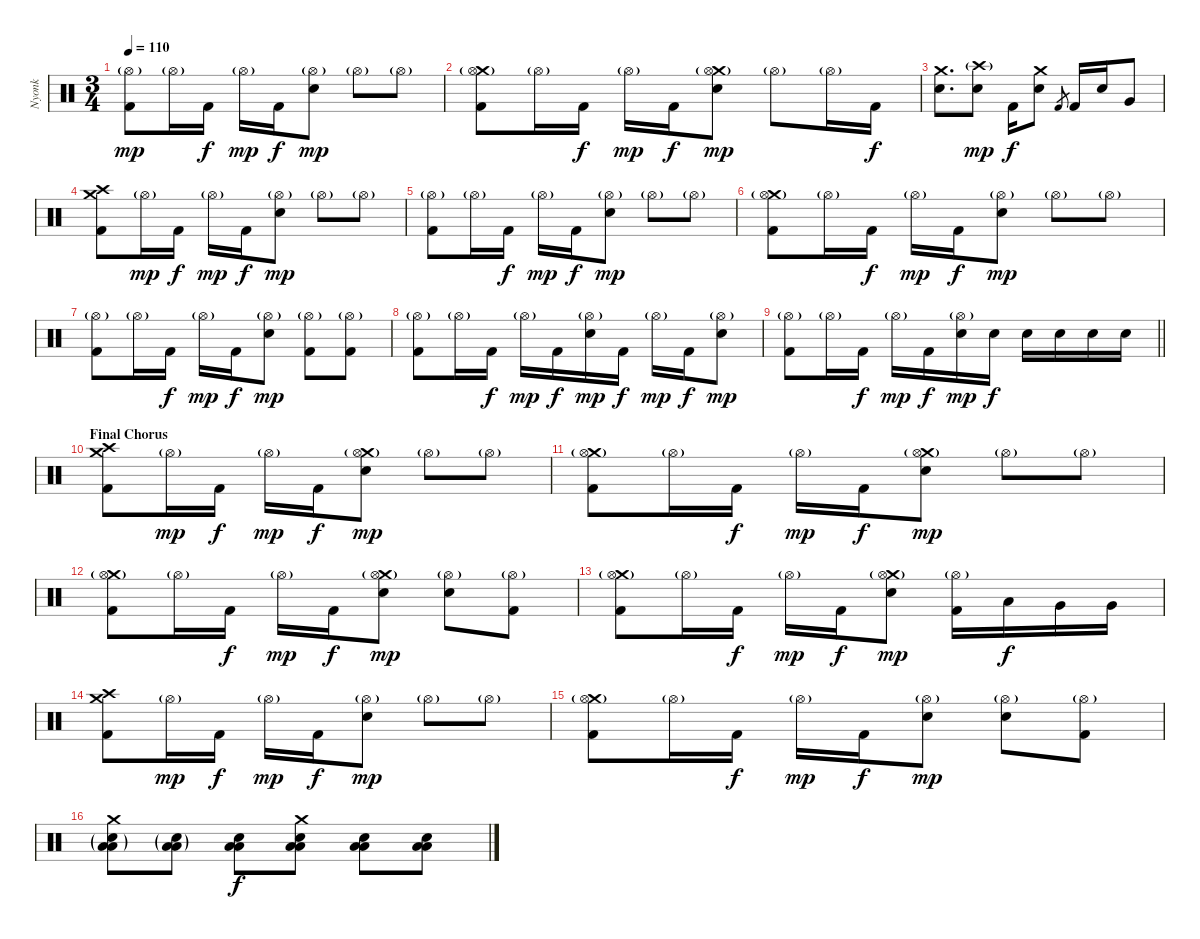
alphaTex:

\track ("Nyonk" "Nyonk") {instrument percussion}
\staff {score}
\articulation defaults
\ts (3 4)
\tempo 110
\clef neutral
\ks c
("Hi-Hat (open)"{g} "Kick (hit) 2").8{dy mp} "Hi-Hat (open)"{g}.16 "Kick (hit) 2".16{dy f} "Hi-Hat (open)"{g}.16{dy mp} "Kick (hit) 2".16{dy f} ("Hi-Hat (open)"{g} "Electric Snare (hit)").8{dy mp} "Hi-Hat (open)"{g}.8 "Hi-Hat (open)"{g}.8 |
("Crash medium (hit)" "Hi-Hat (open)"{g} "Kick (hit) 2").8 "Hi-Hat (open)"{g}.16 "Kick (hit) 2".16{dy f} "Hi-Hat (open)"{g}.16{dy mp} "Kick (hit) 2".16{dy f} ("Crash medium (hit)" "Hi-Hat (open)"{g} "Electric Snare (hit)").8{dy mp} "Hi-Hat (open)"{g}.8 "Hi-Hat (open)"{g}.16 "Kick (hit) 2".16{dy f} |
("Crash medium (hit)" "Electric Snare (hit)").8{d} ("Crash high (hit)"{g} "Electric Snare (hit)").8{dy mp} "Kick (hit) 2".16{dy f} ("Crash medium (hit)" "Electric Snare (hit)").8 "Kick (hit) 2".8{gr} "Kick (hit) 2".16 "Electric Snare (hit)".16 "Very Low Tom (hit)".8 |
("Crash medium (hit)" "Crash high (hit)" "Kick (hit) 2").8 "Hi-Hat (open)"{g}.16{dy mp} "Kick (hit) 2".16{dy f} "Hi-Hat (open)"{g}.16{dy mp} "Kick (hit) 2".16{dy f} ("Hi-Hat (open)"{g} "Electric Snare (hit)").8{dy mp} "Hi-Hat (open)"{g}.8 "Hi-Hat (open)"{g}.8 |
("Hi-Hat (open)"{g} "Kick (hit) 2").8 "Hi-Hat (open)"{g}.16 "Kick (hit) 2".16{dy f} "Hi-Hat (open)"{g}.16{dy mp} "Kick (hit) 2".16{dy f} ("Hi-Hat (open)"{g} "Electric Snare (hit)").8{dy mp} "Hi-Hat (open)"{g}.8 "Hi-Hat (open)"{g}.8 |
("Crash medium (hit)" "Hi-Hat (open)"{g} "Kick (hit) 2").8 "Hi-Hat (open)"{g}.16 "Kick (hit) 2".16{dy f} "Hi-Hat (open)"{g}.16{dy mp} "Kick (hit) 2".16{dy f} ("Hi-Hat (open)"{g} "Electric Snare (hit)").8{dy mp} "Hi-Hat (open)"{g}.8 "Hi-Hat (open)"{g}.8 |
("Hi-Hat (open)"{g} "Kick (hit) 2").8 "Hi-Hat (open)"{g}.16 "Kick (hit) 2".16{dy f} "Hi-Hat (open)"{g}.16{dy mp} "Kick (hit) 2".16{dy f} ("Hi-Hat (open)"{g} "Electric Snare (hit)").8{dy mp} ("Hi-Hat (open)"{g} "Kick (hit) 2").8 ("Hi-Hat (open)"{g} "Kick (hit) 2").8 |
("Hi-Hat (open)"{g} "Kick (hit) 2").8 "Hi-Hat (open)"{g}.16 "Kick (hit) 2".16{dy f} "Hi-Hat (open)"{g}.16{dy mp} "Kick (hit) 2".16{dy f} ("Hi-Hat (open)"{g} "Electric Snare (hit)").16{dy mp} "Kick (hit) 2".16{dy f} "Hi-Hat (open)"{g}.16{dy mp} "Kick (hit) 2".16{dy f} ("Hi-Hat (open)"{g} "Electric Snare (hit)").8{dy mp} |
\barLineRight lightlight
("Hi-Hat (open)"{g} "Kick (hit) 2").8 "Hi-Hat (open)"{g}.16 "Kick (hit) 2".16{dy f} "Hi-Hat (open)"{g}.16{dy mp} "Kick (hit) 2".16{dy f} ("Hi-Hat (open)"{g} "Electric Snare (hit)").16{dy mp} "Electric Snare (hit)".16{dy f} "Electric Snare (hit)".16 "Electric Snare (hit)".16 "Electric Snare (hit)".16 "Electric Snare (hit)".16 |
\section ("" "Final Chorus")
("Crash medium (hit)" "Crash high (hit)" "Kick (hit) 2").8 "Hi-Hat (open)"{g}.16{dy mp} "Kick (hit) 2".16{dy f} "Hi-Hat (open)"{g}.16{dy mp} "Kick (hit) 2".16{dy f} ("Crash medium (hit)" "Hi-Hat (open)"{g} "Electric Snare (hit)").8{dy mp} "Hi-Hat (open)"{g}.8 "Hi-Hat (open)"{g}.8 |
("Crash medium (hit)" "Hi-Hat (open)"{g} "Kick (hit) 2").8 "Hi-Hat (open)"{g}.16 "Kick (hit) 2".16{dy f} "Hi-Hat (open)"{g}.16{dy mp} "Kick (hit) 2".16{dy f} ("Crash medium (hit)" "Hi-Hat (open)"{g} "Electric Snare (hit)").8{dy mp} "Hi-Hat (open)"{g}.8 "Hi-Hat (open)"{g}.8 |
("Crash medium (hit)" "Hi-Hat (open)"{g} "Kick (hit) 2").8 "Hi-Hat (open)"{g}.16 "Kick (hit) 2".16{dy f} "Hi-Hat (open)"{g}.16{dy mp} "Kick (hit) 2".16{dy f} ("Crash medium (hit)" "Hi-Hat (open)"{g} "Electric Snare (hit)").8{dy mp} ("Hi-Hat (open)"{g} "Electric Snare (hit)").8 ("Hi-Hat (open)"{g} "Kick (hit) 2").8 |
("Crash medium (hit)" "Hi-Hat (open)"{g} "Kick (hit) 2").8 "Hi-Hat (open)"{g}.16 "Kick (hit) 2".16{dy f} "Hi-Hat (open)"{g}.16{dy mp} "Kick (hit) 2".16{dy f} ("Crash medium (hit)" "Hi-Hat (open)"{g} "Electric Snare (hit)").8{dy mp} ("Hi-Hat (open)"{g} "Kick (hit) 2").16 "Low Tom (hit)".16{dy f} "Very Low Tom (hit)".16 "Very Low Tom (hit)".16 |
("Crash medium (hit)" "Crash high (hit)" "Kick (hit) 2").8 "Hi-Hat (open)"{g}.16{dy mp} "Kick (hit) 2".16{dy f} "Hi-Hat (open)"{g}.16{dy mp} "Kick (hit) 2".16{dy f} ("Hi-Hat (open)"{g} "Electric Snare (hit)").8{dy mp} "Hi-Hat (open)"{g}.8 "Hi-Hat (open)"{g}.8 |
("Crash medium (hit)" "Hi-Hat (open)"{g} "Kick (hit) 2").8 "Hi-Hat (open)"{g}.16 "Kick (hit) 2".16{dy f} "Hi-Hat (open)"{g}.16{dy mp} "Kick (hit) 2".16{dy f} ("Hi-Hat (open)"{g} "Electric Snare (hit)").8{dy mp} ("Hi-Hat (open)"{g} "Electric Snare (hit)").8 ("Hi-Hat (open)"{g} "Kick (hit) 2").8 |
("Crash medium (hit)" "Electric Snare (hit)"{g} "Low Floor Tom (hit)"{g} "Low Floor Tom (hit)"{g}).8 ("Electric Snare (hit)"{g} "Low Floor Tom (hit)"{g} "Low Floor Tom (hit)"{g}).8 ("Electric Snare (hit)" "Low Floor Tom (hit)" "Low Floor Tom (hit)").8{dy f} ("Crash medium (hit)" "Electric Snare (hit)" "Low Floor Tom (hit)" "Low Floor Tom (hit)").8 ("Electric Snare (hit)" "Low Floor Tom (hit)" "Low Floor Tom (hit)").8 ("Electric Snare (hit)" "Low Floor Tom (hit)" "Low Floor Tom (hit)").8
